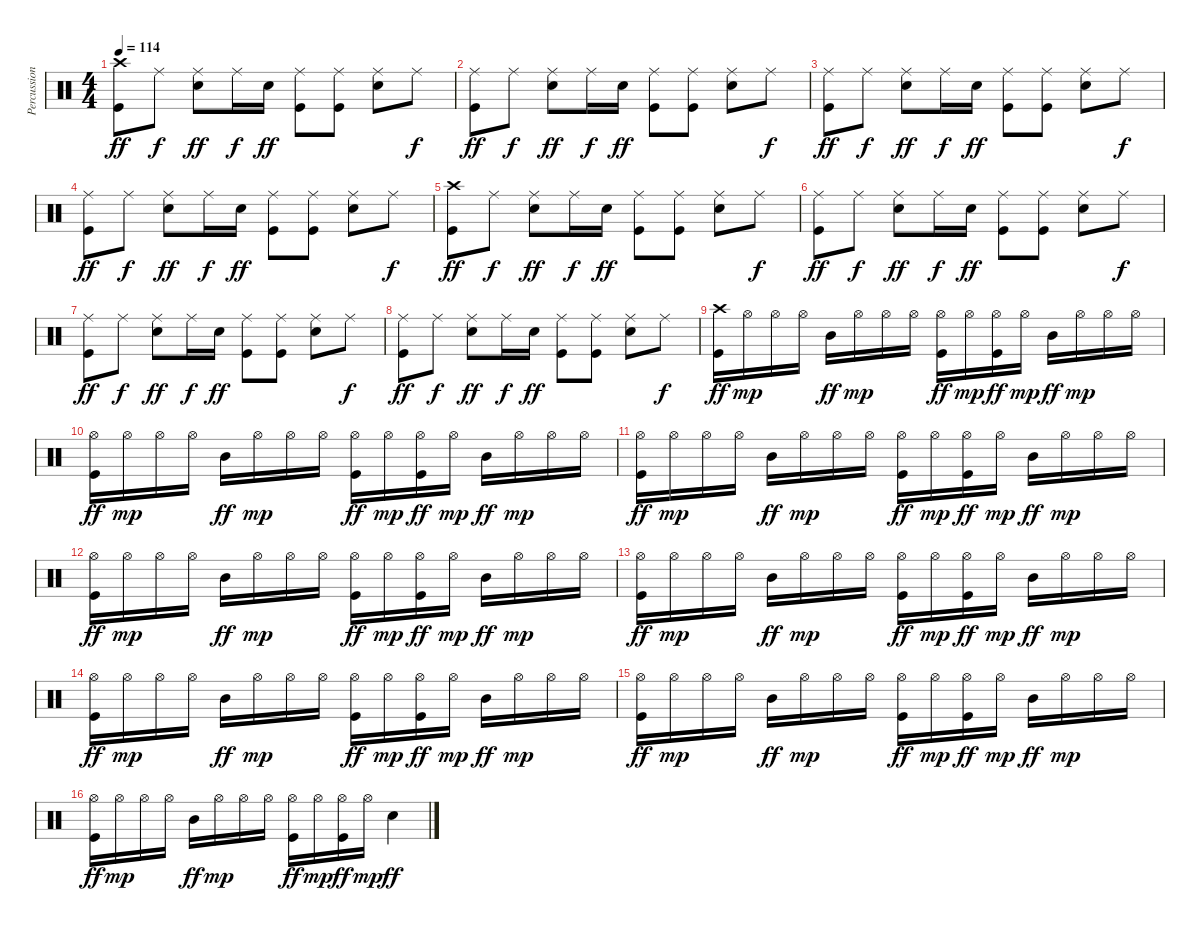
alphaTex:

\track ("Percussion" "Percussion") {instrument percussion}
\staff {score}
\articulation defaults
\ts (4 4)
\tempo 114
\clef neutral
\ks c
("Crash high (hit)" "Kick (hit)").8{dy ff} "Ride (middle)".8{dy f} ("Ride (middle)" "Snare (hit) 2").8{dy ff} "Ride (middle)".16{dy f} "Snare (hit) 2".16{dy ff} ("Ride (middle)" "Kick (hit)").8 ("Ride (middle)" "Kick (hit)").8 ("Ride (middle)" "Snare (hit) 2").8 "Ride (middle)".8{dy f} |
("Ride (middle)" "Kick (hit)").8{dy ff} "Ride (middle)".8{dy f} ("Ride (middle)" "Snare (hit) 2").8{dy ff} "Ride (middle)".16{dy f} "Snare (hit) 2".16{dy ff} ("Ride (middle)" "Kick (hit)").8 ("Ride (middle)" "Kick (hit)").8 ("Ride (middle)" "Snare (hit) 2").8 "Ride (middle)".8{dy f} |
("Ride (middle)" "Kick (hit)").8{dy ff} "Ride (middle)".8{dy f} ("Ride (middle)" "Snare (hit) 2").8{dy ff} "Ride (middle)".16{dy f} "Snare (hit) 2".16{dy ff} ("Ride (middle)" "Kick (hit)").8 ("Ride (middle)" "Kick (hit)").8 ("Ride (middle)" "Snare (hit) 2").8 "Ride (middle)".8{dy f} |
("Ride (middle)" "Kick (hit)").8{dy ff} "Ride (middle)".8{dy f} ("Ride (middle)" "Snare (hit) 2").8{dy ff} "Ride (middle)".16{dy f} "Snare (hit) 2".16{dy ff} ("Ride (middle)" "Kick (hit)").8 ("Ride (middle)" "Kick (hit)").8 ("Ride (middle)" "Snare (hit) 2").8 "Ride (middle)".8{dy f} |
("Crash high (hit)" "Kick (hit)").8{dy ff} "Ride (middle)".8{dy f} ("Ride (middle)" "Snare (hit) 2").8{dy ff} "Ride (middle)".16{dy f} "Snare (hit) 2".16{dy ff} ("Ride (middle)" "Kick (hit)").8 ("Ride (middle)" "Kick (hit)").8 ("Ride (middle)" "Snare (hit) 2").8 "Ride (middle)".8{dy f} |
("Ride (middle)" "Kick (hit)").8{dy ff} "Ride (middle)".8{dy f} ("Ride (middle)" "Snare (hit) 2").8{dy ff} "Ride (middle)".16{dy f} "Snare (hit) 2".16{dy ff} ("Ride (middle)" "Kick (hit)").8 ("Ride (middle)" "Kick (hit)").8 ("Ride (middle)" "Snare (hit) 2").8 "Ride (middle)".8{dy f} |
("Ride (middle)" "Kick (hit)").8{dy ff} "Ride (middle)".8{dy f} ("Ride (middle)" "Snare (hit) 2").8{dy ff} "Ride (middle)".16{dy f} "Snare (hit) 2".16{dy ff} ("Ride (middle)" "Kick (hit)").8 ("Ride (middle)" "Kick (hit)").8 ("Ride (middle)" "Snare (hit) 2").8 "Ride (middle)".8{dy f} |
("Ride (middle)" "Kick (hit)").8{dy ff} "Ride (middle)".8{dy f} ("Ride (middle)" "Snare (hit) 2").8{dy ff} "Ride (middle)".16{dy f} "Snare (hit) 2".16{dy ff} ("Ride (middle)" "Kick (hit)").8 ("Ride (middle)" "Kick (hit)").8 ("Ride (middle)" "Snare (hit) 2").8 "Ride (middle)".8{dy f} |
("Crash high (hit)" "Kick (hit)").16{dy ff} "Hi-Hat (open)".16{dy mp} "Hi-Hat (open)".16 "Hi-Hat (open)".16 "Mid Tom (hit)".16{dy ff} "Hi-Hat (open)".16{dy mp} "Hi-Hat (open)".16 "Hi-Hat (open)".16 ("Hi-Hat (open)" "Kick (hit)").16{dy ff} "Hi-Hat (open)".16{dy mp} ("Hi-Hat (open)" "Kick (hit)").16{dy ff} "Hi-Hat (open)".16{dy mp} "Mid Tom (hit)".16{dy ff} "Hi-Hat (open)".16{dy mp} "Hi-Hat (open)".16 "Hi-Hat (open)".16 |
("Hi-Hat (open)" "Kick (hit)").16{dy ff} "Hi-Hat (open)".16{dy mp} "Hi-Hat (open)".16 "Hi-Hat (open)".16 "Mid Tom (hit)".16{dy ff} "Hi-Hat (open)".16{dy mp} "Hi-Hat (open)".16 "Hi-Hat (open)".16 ("Hi-Hat (open)" "Kick (hit)").16{dy ff} "Hi-Hat (open)".16{dy mp} ("Hi-Hat (open)" "Kick (hit)").16{dy ff} "Hi-Hat (open)".16{dy mp} "Mid Tom (hit)".16{dy ff} "Hi-Hat (open)".16{dy mp} "Hi-Hat (open)".16 "Hi-Hat (open)".16 |
("Hi-Hat (open)" "Kick (hit)").16{dy ff} "Hi-Hat (open)".16{dy mp} "Hi-Hat (open)".16 "Hi-Hat (open)".16 "Mid Tom (hit)".16{dy ff} "Hi-Hat (open)".16{dy mp} "Hi-Hat (open)".16 "Hi-Hat (open)".16 ("Hi-Hat (open)" "Kick (hit)").16{dy ff} "Hi-Hat (open)".16{dy mp} ("Hi-Hat (open)" "Kick (hit)").16{dy ff} "Hi-Hat (open)".16{dy mp} "Mid Tom (hit)".16{dy ff} "Hi-Hat (open)".16{dy mp} "Hi-Hat (open)".16 "Hi-Hat (open)".16 |
("Hi-Hat (open)" "Kick (hit)").16{dy ff} "Hi-Hat (open)".16{dy mp} "Hi-Hat (open)".16 "Hi-Hat (open)".16 "Mid Tom (hit)".16{dy ff} "Hi-Hat (open)".16{dy mp} "Hi-Hat (open)".16 "Hi-Hat (open)".16 ("Hi-Hat (open)" "Kick (hit)").16{dy ff} "Hi-Hat (open)".16{dy mp} ("Hi-Hat (open)" "Kick (hit)").16{dy ff} "Hi-Hat (open)".16{dy mp} "Mid Tom (hit)".16{dy ff} "Hi-Hat (open)".16{dy mp} "Hi-Hat (open)".16 "Hi-Hat (open)".16 |
("Hi-Hat (open)" "Kick (hit)").16{dy ff} "Hi-Hat (open)".16{dy mp} "Hi-Hat (open)".16 "Hi-Hat (open)".16 "Mid Tom (hit)".16{dy ff} "Hi-Hat (open)".16{dy mp} "Hi-Hat (open)".16 "Hi-Hat (open)".16 ("Hi-Hat (open)" "Kick (hit)").16{dy ff} "Hi-Hat (open)".16{dy mp} ("Hi-Hat (open)" "Kick (hit)").16{dy ff} "Hi-Hat (open)".16{dy mp} "Mid Tom (hit)".16{dy ff} "Hi-Hat (open)".16{dy mp} "Hi-Hat (open)".16 "Hi-Hat (open)".16 |
("Hi-Hat (open)" "Kick (hit)").16{dy ff} "Hi-Hat (open)".16{dy mp} "Hi-Hat (open)".16 "Hi-Hat (open)".16 "Mid Tom (hit)".16{dy ff} "Hi-Hat (open)".16{dy mp} "Hi-Hat (open)".16 "Hi-Hat (open)".16 ("Hi-Hat (open)" "Kick (hit)").16{dy ff} "Hi-Hat (open)".16{dy mp} ("Hi-Hat (open)" "Kick (hit)").16{dy ff} "Hi-Hat (open)".16{dy mp} "Mid Tom (hit)".16{dy ff} "Hi-Hat (open)".16{dy mp} "Hi-Hat (open)".16 "Hi-Hat (open)".16 |
("Hi-Hat (open)" "Kick (hit)").16{dy ff} "Hi-Hat (open)".16{dy mp} "Hi-Hat (open)".16 "Hi-Hat (open)".16 "Mid Tom (hit)".16{dy ff} "Hi-Hat (open)".16{dy mp} "Hi-Hat (open)".16 "Hi-Hat (open)".16 ("Hi-Hat (open)" "Kick (hit)").16{dy ff} "Hi-Hat (open)".16{dy mp} ("Hi-Hat (open)" "Kick (hit)").16{dy ff} "Hi-Hat (open)".16{dy mp} "Mid Tom (hit)".16{dy ff} "Hi-Hat (open)".16{dy mp} "Hi-Hat (open)".16 "Hi-Hat (open)".16 |
("Hi-Hat (open)" "Kick (hit)").16{dy ff} "Hi-Hat (open)".16{dy mp} "Hi-Hat (open)".16 "Hi-Hat (open)".16 "Mid Tom (hit)".16{dy ff} "Hi-Hat (open)".16{dy mp} "Hi-Hat (open)".16 "Hi-Hat (open)".16 ("Hi-Hat (open)" "Kick (hit)").16{dy ff} "Hi-Hat (open)".16{dy mp} ("Hi-Hat (open)" "Kick (hit)").16{dy ff} "Hi-Hat (open)".16{dy mp} "Snare (hit) 2".4{dy ff}
